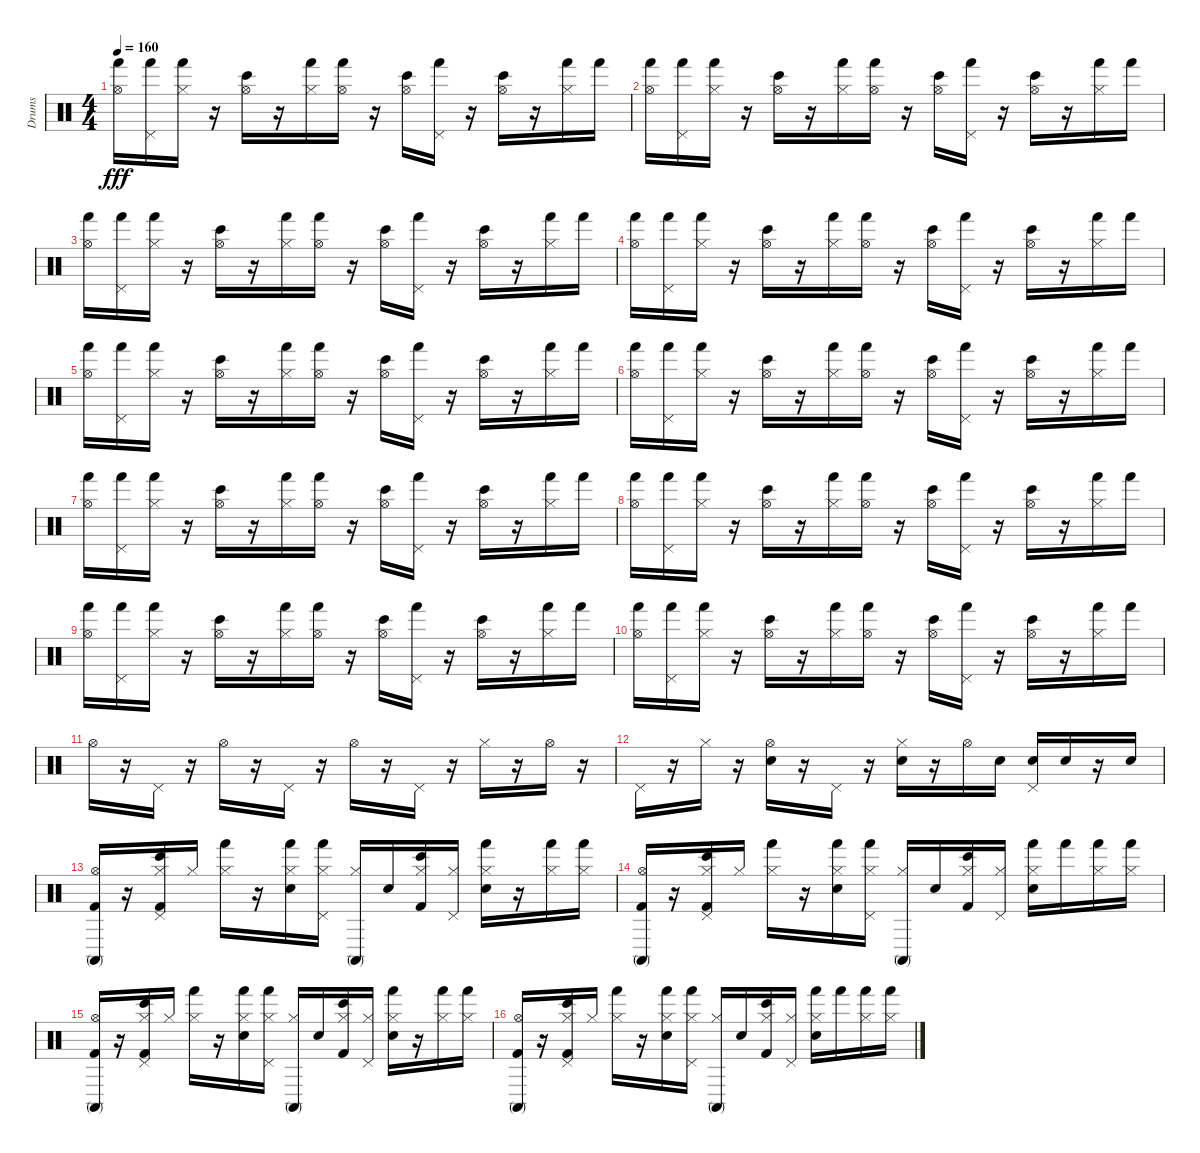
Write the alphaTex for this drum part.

\track ("Drums" "Drums") {instrument percussion}
\staff {score}
\articulation defaults
\ts (4 4)
\tempo 160
\clef neutral
\ks c
("Hi-Hat (open)" "Hand (hit)").16{dy fff} ("Pedal Hi-Hat (hit)" "Hand (hit)").16 ("Hi-Hat (closed)" "Hand (hit)").16 r.16 ("Hi-Hat (open)" "Bongo High (hit)").16 r.16 ("Hand (hit)" "Hi-Hat (closed)").16 ("Hi-Hat (open)" "Hand (hit)").16 r.16 ("Bongo High (hit)" "Hi-Hat (open)").16 ("Pedal Hi-Hat (hit)" "Hand (hit)").16 r.16 ("Bongo High (hit)" "Hi-Hat (open)").16 r.16 ("Hi-Hat (closed)" "Hand (hit)").16 "Hand (hit)".16 |
("Hand (hit)" "Hi-Hat (open)").16 ("Hand (hit)" "Pedal Hi-Hat (hit)").16 ("Hi-Hat (closed)" "Hand (hit)").16 r.16 ("Bongo High (hit)" "Hi-Hat (open)").16 r.16 ("Hand (hit)" "Hi-Hat (closed)").16 ("Hand (hit)" "Hi-Hat (open)").16 r.16 ("Bongo High (hit)" "Hi-Hat (open)").16 ("Hand (hit)" "Pedal Hi-Hat (hit)").16 r.16 ("Bongo High (hit)" "Hi-Hat (open)").16 r.16 ("Hand (hit)" "Hi-Hat (closed)").16 "Hand (hit)".16 |
("Hi-Hat (open)" "Hand (hit)").16 ("Hand (hit)" "Pedal Hi-Hat (hit)").16 ("Hand (hit)" "Hi-Hat (closed)").16 r.16 ("Hi-Hat (open)" "Bongo High (hit)").16 r.16 ("Hi-Hat (closed)" "Hand (hit)").16 ("Hand (hit)" "Hi-Hat (open)").16 r.16 ("Hi-Hat (open)" "Bongo High (hit)").16 ("Hand (hit)" "Pedal Hi-Hat (hit)").16 r.16 ("Bongo High (hit)" "Hi-Hat (open)").16 r.16 ("Hand (hit)" "Hi-Hat (closed)").16 "Hand (hit)".16 |
("Hi-Hat (open)" "Hand (hit)").16 ("Hand (hit)" "Pedal Hi-Hat (hit)").16 ("Hand (hit)" "Hi-Hat (closed)").16 r.16 ("Hi-Hat (open)" "Bongo High (hit)").16 r.16 ("Hand (hit)" "Hi-Hat (closed)").16 ("Hi-Hat (open)" "Hand (hit)").16 r.16 ("Bongo High (hit)" "Hi-Hat (open)").16 ("Hand (hit)" "Pedal Hi-Hat (hit)").16 r.16 ("Hi-Hat (open)" "Bongo High (hit)").16 r.16 ("Hand (hit)" "Hi-Hat (closed)").16 "Hand (hit)".16 |
("Hand (hit)" "Hi-Hat (open)").16 ("Hand (hit)" "Pedal Hi-Hat (hit)").16 ("Hand (hit)" "Hi-Hat (closed)").16 r.16 ("Hi-Hat (open)" "Bongo High (hit)").16 r.16 ("Hand (hit)" "Hi-Hat (closed)").16 ("Hi-Hat (open)" "Hand (hit)").16 r.16 ("Hi-Hat (open)" "Bongo High (hit)").16 ("Pedal Hi-Hat (hit)" "Hand (hit)").16 r.16 ("Hi-Hat (open)" "Bongo High (hit)").16 r.16 ("Hi-Hat (closed)" "Hand (hit)").16 "Hand (hit)".16 |
("Hi-Hat (open)" "Hand (hit)").16 ("Pedal Hi-Hat (hit)" "Hand (hit)").16 ("Hand (hit)" "Hi-Hat (closed)").16 r.16 ("Hi-Hat (open)" "Bongo High (hit)").16 r.16 ("Hand (hit)" "Hi-Hat (closed)").16 ("Hand (hit)" "Hi-Hat (open)").16 r.16 ("Hi-Hat (open)" "Bongo High (hit)").16 ("Hand (hit)" "Pedal Hi-Hat (hit)").16 r.16 ("Hi-Hat (open)" "Bongo High (hit)").16 r.16 ("Hi-Hat (closed)" "Hand (hit)").16 "Hand (hit)".16 |
("Hand (hit)" "Hi-Hat (open)").16 ("Pedal Hi-Hat (hit)" "Hand (hit)").16 ("Hi-Hat (closed)" "Hand (hit)").16 r.16 ("Bongo High (hit)" "Hi-Hat (open)").16 r.16 ("Hi-Hat (closed)" "Hand (hit)").16 ("Hand (hit)" "Hi-Hat (open)").16 r.16 ("Bongo High (hit)" "Hi-Hat (open)").16 ("Pedal Hi-Hat (hit)" "Hand (hit)").16 r.16 ("Hi-Hat (open)" "Bongo High (hit)").16 r.16 ("Hand (hit)" "Hi-Hat (closed)").16 "Hand (hit)".16 |
("Hand (hit)" "Hi-Hat (open)").16 ("Pedal Hi-Hat (hit)" "Hand (hit)").16 ("Hand (hit)" "Hi-Hat (closed)").16 r.16 ("Hi-Hat (open)" "Bongo High (hit)").16 r.16 ("Hi-Hat (closed)" "Hand (hit)").16 ("Hand (hit)" "Hi-Hat (open)").16 r.16 ("Bongo High (hit)" "Hi-Hat (open)").16 ("Pedal Hi-Hat (hit)" "Hand (hit)").16 r.16 ("Hi-Hat (open)" "Bongo High (hit)").16 r.16 ("Hand (hit)" "Hi-Hat (closed)").16 "Hand (hit)".16 |
("Hi-Hat (open)" "Hand (hit)").16 ("Hand (hit)" "Pedal Hi-Hat (hit)").16 ("Hand (hit)" "Hi-Hat (closed)").16 r.16 ("Hi-Hat (open)" "Bongo High (hit)").16 r.16 ("Hi-Hat (closed)" "Hand (hit)").16 ("Hand (hit)" "Hi-Hat (open)").16 r.16 ("Bongo High (hit)" "Hi-Hat (open)").16 ("Pedal Hi-Hat (hit)" "Hand (hit)").16 r.16 ("Bongo High (hit)" "Hi-Hat (open)").16 r.16 ("Hi-Hat (closed)" "Hand (hit)").16 "Hand (hit)".16 |
("Hand (hit)" "Hi-Hat (open)").16 ("Pedal Hi-Hat (hit)" "Hand (hit)").16 ("Hand (hit)" "Hi-Hat (closed)").16 r.16 ("Hi-Hat (open)" "Bongo High (hit)").16 r.16 ("Hi-Hat (closed)" "Hand (hit)").16 ("Hand (hit)" "Hi-Hat (open)").16 r.16 ("Bongo High (hit)" "Hi-Hat (open)").16 ("Hand (hit)" "Pedal Hi-Hat (hit)").16 r.16 ("Hi-Hat (open)" "Bongo High (hit)").16 r.16 ("Hand (hit)" "Hi-Hat (closed)").16 "Hand (hit)".16 |
"Hi-Hat (open)".16 r.16 "Pedal Hi-Hat (hit)".16 r.16 "Hi-Hat (open)".16 r.16 "Pedal Hi-Hat (hit)".16 r.16 "Hi-Hat (open)".16 r.16 "Pedal Hi-Hat (hit)".16 r.16 "Hi-Hat (closed)".16 r.16 "Hi-Hat (open)".16 r.16 |
"Pedal Hi-Hat (hit)".16 r.16 "Hi-Hat (closed)".16 r.16 ("Electric Snare (hit)" "Hi-Hat (open)").16 r.16 "Pedal Hi-Hat (hit)".16 r.16 ("Hi-Hat (closed)" "Electric Snare (hit)").16 r.16 "Hi-Hat (open)".16 "Electric Snare (hit)".16 ("Electric Snare (hit)" "Pedal Hi-Hat (hit)").16 "Electric Snare (hit)".16 r.16 "Electric Snare (hit)".16 |
("Kick (hit) 2" "Hi-Hat (open)" "Conga high (mute)").16 r.16 ("Kick (hit) 2" "Bongo High (hit)" "Pedal Hi-Hat (hit)" "Hi-Hat (closed)").16 "Hi-Hat (closed)".16 ("Hand (hit)" "Hi-Hat (closed)").16 r.16 ("Electric Snare (hit)" "Hand (hit)" "Hi-Hat (closed)").16 ("Hand (hit)" "Hi-Hat (closed)" "Pedal Hi-Hat (hit)").16 ("Conga high (mute)" "Hi-Hat (closed)").16 "Electric Snare (hit)".16 ("Hi-Hat (closed)" "Kick (hit) 2" "Bongo High (hit)").16 ("Hi-Hat (closed)" "Pedal Hi-Hat (hit)").16 ("Hand (hit)" "Hi-Hat (closed)" "Electric Snare (hit)").16 r.16 ("Hi-Hat (closed)" "Hand (hit)").16 ("Hand (hit)" "Hi-Hat (closed)").16 |
("Conga high (mute)" "Hi-Hat (open)" "Kick (hit) 2").16 r.16 ("Bongo High (hit)" "Pedal Hi-Hat (hit)" "Kick (hit) 2" "Hi-Hat (closed)").16 "Hi-Hat (closed)".16 ("Hand (hit)" "Hi-Hat (closed)").16 r.16 ("Hi-Hat (closed)" "Hand (hit)" "Electric Snare (hit)").16 ("Hand (hit)" "Hi-Hat (closed)" "Pedal Hi-Hat (hit)").16 ("Conga high (mute)" "Hi-Hat (closed)").16 "Electric Snare (hit)".16 ("Bongo High (hit)" "Kick (hit) 2" "Hi-Hat (closed)").16 ("Hi-Hat (closed)" "Pedal Hi-Hat (hit)").16 ("Electric Snare (hit)" "Hi-Hat (closed)" "Hand (hit)").16 "Hand (hit)".16 ("Hand (hit)" "Hi-Hat (closed)").16 ("Hi-Hat (closed)" "Hand (hit)").16 |
("Conga high (mute)" "Kick (hit) 2" "Hi-Hat (open)").16 r.16 ("Hi-Hat (closed)" "Kick (hit) 2" "Bongo High (hit)" "Pedal Hi-Hat (hit)").16 "Hi-Hat (closed)".16 ("Hi-Hat (closed)" "Hand (hit)").16 r.16 ("Electric Snare (hit)" "Hand (hit)" "Hi-Hat (closed)").16 ("Hi-Hat (closed)" "Pedal Hi-Hat (hit)" "Hand (hit)").16 ("Hi-Hat (closed)" "Conga high (mute)").16 "Electric Snare (hit)".16 ("Bongo High (hit)" "Hi-Hat (closed)" "Kick (hit) 2").16 ("Hi-Hat (closed)" "Pedal Hi-Hat (hit)").16 ("Hand (hit)" "Electric Snare (hit)" "Hi-Hat (closed)").16 r.16 ("Hand (hit)" "Hi-Hat (closed)").16 ("Hand (hit)" "Hi-Hat (closed)").16 |
("Conga high (mute)" "Kick (hit) 2" "Hi-Hat (open)").16 r.16 ("Kick (hit) 2" "Pedal Hi-Hat (hit)" "Bongo High (hit)" "Hi-Hat (closed)").16 "Hi-Hat (closed)".16 ("Hi-Hat (closed)" "Hand (hit)").16 r.16 ("Hi-Hat (closed)" "Electric Snare (hit)" "Hand (hit)").16 ("Hi-Hat (closed)" "Pedal Hi-Hat (hit)" "Hand (hit)").16 ("Hi-Hat (closed)" "Conga high (mute)").16 "Electric Snare (hit)".16 ("Bongo High (hit)" "Kick (hit) 2" "Hi-Hat (closed)").16 ("Hi-Hat (closed)" "Pedal Hi-Hat (hit)").16 ("Hand (hit)" "Electric Snare (hit)" "Hi-Hat (closed)").16 "Hand (hit)".16 ("Hi-Hat (closed)" "Hand (hit)").16 ("Hi-Hat (closed)" "Hand (hit)").16
